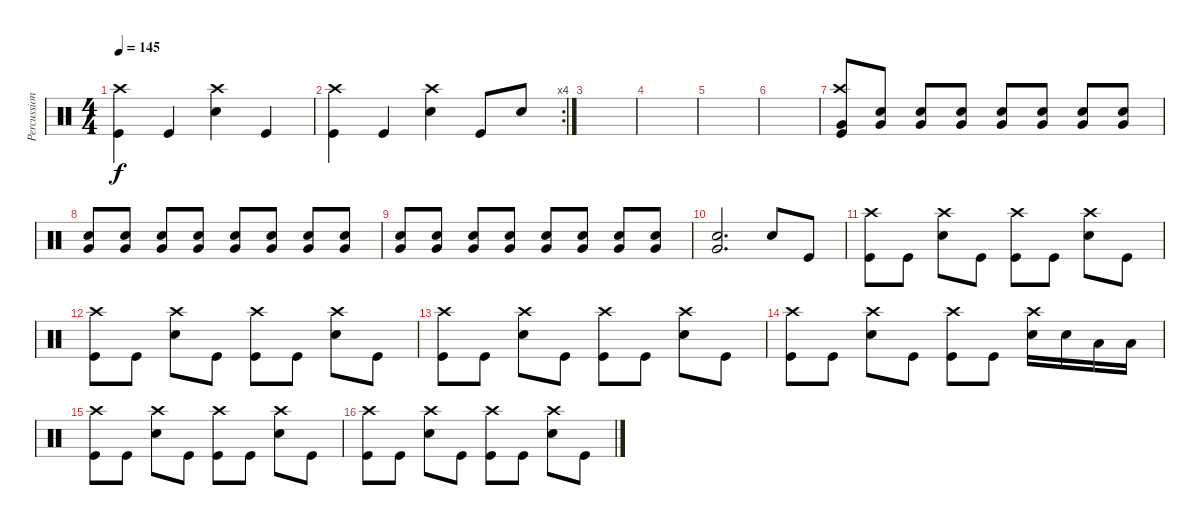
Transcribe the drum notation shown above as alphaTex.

\track ("Percussion" "Percussion") {instrument percussion}
\staff {score}
\articulation defaults
\ts (4 4)
\tempo 145
\clef neutral
\ks c
("Kick (hit)" "Crash high (hit)").4{dy f} "Kick (hit)".4 ("Snare (hit) 2" "Crash high (hit)").4 "Kick (hit)".4 |
\rc 4
("Kick (hit)" "Crash high (hit)").4 "Kick (hit)".4 ("Snare (hit) 2" "Crash high (hit)").4 "Kick (hit)".8 "Snare (hit) 2".8 |
|
|
|
|
("Crash high (hit)" "Very Low Tom (hit)" "Kick (hit)").8 ("Snare (hit) 2" "Very Low Tom (hit)").8{volume 7} ("Snare (hit) 2" "Very Low Tom (hit)").8{volume 13} ("Snare (hit) 2" "Very Low Tom (hit)").8 ("Snare (hit) 2" "Very Low Tom (hit)").8 ("Snare (hit) 2" "Very Low Tom (hit)").8 ("Snare (hit) 2" "Very Low Tom (hit)").8 ("Snare (hit) 2" "Very Low Tom (hit)").8 |
("Snare (hit) 2" "Very Low Tom (hit)").8 ("Snare (hit) 2" "Very Low Tom (hit)").8 ("Snare (hit) 2" "Very Low Tom (hit)").8 ("Snare (hit) 2" "Very Low Tom (hit)").8 ("Snare (hit) 2" "Very Low Tom (hit)").8 ("Snare (hit) 2" "Very Low Tom (hit)").8 ("Snare (hit) 2" "Very Low Tom (hit)").8 ("Snare (hit) 2" "Very Low Tom (hit)").8 |
("Snare (hit) 2" "Very Low Tom (hit)").8 ("Snare (hit) 2" "Very Low Tom (hit)").8 ("Snare (hit) 2" "Very Low Tom (hit)").8 ("Snare (hit) 2" "Very Low Tom (hit)").8 ("Snare (hit) 2" "Very Low Tom (hit)").8 ("Snare (hit) 2" "Very Low Tom (hit)").8 ("Snare (hit) 2" "Very Low Tom (hit)").8 ("Snare (hit) 2" "Very Low Tom (hit)").8 |
("Snare (hit) 2" "Very Low Tom (hit)").2{d} "Snare (hit) 2".8 "Kick (hit)".8 |
("Kick (hit)" "Crash high (hit)").8 "Kick (hit)".8 ("Snare (hit) 2" "Crash high (hit)").8 "Kick (hit)".8 ("Kick (hit)" "Crash high (hit)").8 "Kick (hit)".8 ("Snare (hit) 2" "Crash high (hit)").8 "Kick (hit)".8 |
("Kick (hit)" "Crash high (hit)").8 "Kick (hit)".8 ("Snare (hit) 2" "Crash high (hit)").8 "Kick (hit)".8 ("Kick (hit)" "Crash high (hit)").8 "Kick (hit)".8 ("Snare (hit) 2" "Crash high (hit)").8 "Kick (hit)".8 |
("Kick (hit)" "Crash high (hit)").8 "Kick (hit)".8 ("Snare (hit) 2" "Crash high (hit)").8 "Kick (hit)".8 ("Kick (hit)" "Crash high (hit)").8 "Kick (hit)".8 ("Snare (hit) 2" "Crash high (hit)").8 "Kick (hit)".8 |
("Kick (hit)" "Crash high (hit)").8 "Kick (hit)".8 ("Snare (hit) 2" "Crash high (hit)").8 "Kick (hit)".8 ("Kick (hit)" "Crash high (hit)").8 "Kick (hit)".8 ("Snare (hit) 2" "Crash high (hit)").16 "Snare (hit) 2".16 "Low Tom (hit)".16 "Low Tom (hit)".16 |
("Kick (hit)" "Crash high (hit)").8 "Kick (hit)".8 ("Snare (hit) 2" "Crash high (hit)").8 "Kick (hit)".8 ("Kick (hit)" "Crash high (hit)").8 "Kick (hit)".8 ("Snare (hit) 2" "Crash high (hit)").8 "Kick (hit)".8 |
("Kick (hit)" "Crash high (hit)").8 "Kick (hit)".8 ("Snare (hit) 2" "Crash high (hit)").8 "Kick (hit)".8 ("Kick (hit)" "Crash high (hit)").8 "Kick (hit)".8 ("Snare (hit) 2" "Crash high (hit)").8 "Kick (hit)".8
